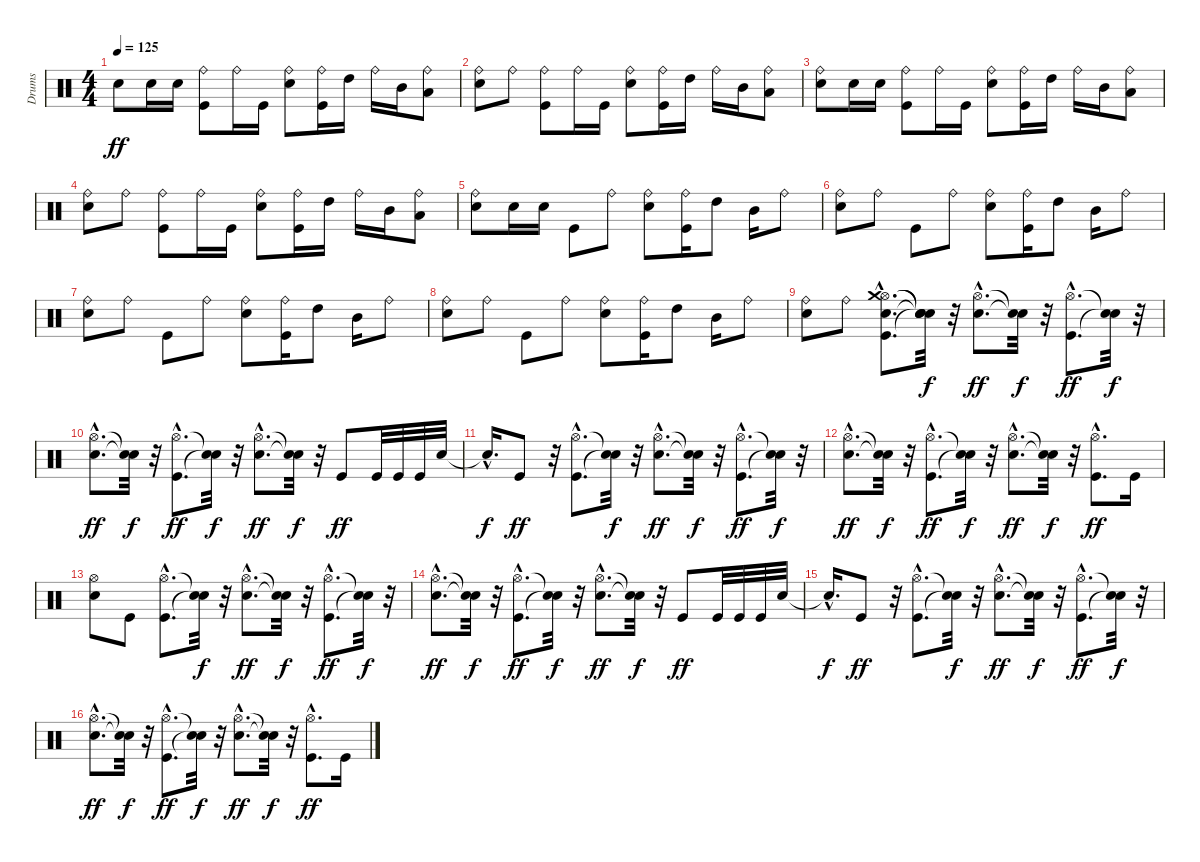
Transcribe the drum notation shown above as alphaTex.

\track ("Drums" "Drums") {instrument percussion}
\staff {score}
\articulation defaults
\ts (4 4)
\tempo 125
\clef neutral
\ks c "Electric Snare (hit)".8{dy ff} "Electric Snare (hit)".16 "Electric Snare (hit)".16
("Kick (hit)" "Ride (bell)").8 "Ride (bell)".16 "Kick (hit)".16 ("Electric Snare (hit)" "Ride (bell)").8 ("Kick (hit)" "Ride (bell)").16 "High Tom (hit)".16 "Ride (bell)".16 "Mid Tom (hit)".16 ("Low Tom (hit)" "Ride (bell)").8 |
("Electric Snare (hit)" "Ride (bell)").8 "Ride (bell)".8 ("Kick (hit)" "Ride (bell)").8 "Ride (bell)".16 "Kick (hit)".16 ("Electric Snare (hit)" "Ride (bell)").8 ("Kick (hit)" "Ride (bell)").16 "High Tom (hit)".16 "Ride (bell)".16 "Mid Tom (hit)".16 ("Low Tom (hit)" "Ride (bell)").8 |
("Electric Snare (hit)" "Ride (bell)").8 "Electric Snare (hit)".16 "Electric Snare (hit)".16 ("Kick (hit)" "Ride (bell)").8 "Ride (bell)".16 "Kick (hit)".16 ("Electric Snare (hit)" "Ride (bell)").8 ("Kick (hit)" "Ride (bell)").16 "High Tom (hit)".16 "Ride (bell)".16 "Mid Tom (hit)".16 ("Low Tom (hit)" "Ride (bell)").8 |
("Electric Snare (hit)" "Ride (bell)").8 "Ride (bell)".8 ("Kick (hit)" "Ride (bell)").8 "Ride (bell)".16 "Kick (hit)".16 ("Electric Snare (hit)" "Ride (bell)").8 ("Kick (hit)" "Ride (bell)").16 "High Tom (hit)".16 "Ride (bell)".16 "Mid Tom (hit)".16 ("Low Tom (hit)" "Ride (bell)").8 |
("Electric Snare (hit)" "Ride (bell)").8 "Electric Snare (hit)".16 "Electric Snare (hit)".16 "Kick (hit)".8 "Ride (bell)".8 ("Electric Snare (hit)" "Ride (bell)").8 ("Kick (hit)" "Ride (bell)").16 "High Tom (hit)".8 "Mid Tom (hit)".16 "Ride (bell)".8 |
("Electric Snare (hit)" "Ride (bell)").8 "Ride (bell)".8 "Kick (hit)".8 "Ride (bell)".8 ("Electric Snare (hit)" "Ride (bell)").8 ("Kick (hit)" "Ride (bell)").16 "High Tom (hit)".8 "Mid Tom (hit)".16 "Ride (bell)".8 |
("Electric Snare (hit)" "Ride (bell)").8 "Ride (bell)".8 "Kick (hit)".8 "Ride (bell)".8 ("Electric Snare (hit)" "Ride (bell)").8 ("Kick (hit)" "Ride (bell)").16 "High Tom (hit)".8 "Mid Tom (hit)".16 "Ride (bell)".8 |
("Electric Snare (hit)" "Ride (bell)").8 "Ride (bell)".8 "Kick (hit)".8 "Ride (bell)".8 ("Electric Snare (hit)" "Ride (bell)").8 ("Kick (hit)" "Ride (bell)").16 "High Tom (hit)".8 "Mid Tom (hit)".16 "Ride (bell)".8 |
("Electric Snare (hit)" "Ride (bell)").8 "Ride (bell)".8 ("Kick (hit)"{hac} "Electric Snare (hit)"{hac} "Hi-Hat (open)"{hac} "Crash medium (hit)"{hac}).8{d} ("Snare (hit)"{t} "Snare (hit)"{t} "Snare (hit)"{t} "Snare (hit)"{t}).32{dy f} r.32 ("Electric Snare (hit)"{hac} "Hi-Hat (open)"{hac}).8{d dy ff} ("Snare (hit)"{t} "Snare (hit)"{t}).32{dy f} r.32 ("Kick (hit)"{hac} "Hi-Hat (open)"{hac}).8{d dy ff} ("Snare (hit)"{t} "Snare (hit)"{t}).32{dy f} r.32 |
("Electric Snare (hit)"{hac} "Hi-Hat (open)"{hac}).8{d dy ff} ("Snare (hit)"{t} "Snare (hit)"{t}).32{dy f} r.32 ("Kick (hit)"{hac} "Hi-Hat (open)"{hac}).8{d dy ff} ("Snare (hit)"{t} "Snare (hit)"{t}).32{dy f} r.32 ("Electric Snare (hit)"{hac} "Hi-Hat (open)"{hac}).8{d dy ff} ("Snare (hit)"{t} "Snare (hit)"{t}).32{dy f} r.32 "Kick (hit)".8{dy ff} "Kick (hit)".32 "Kick (hit)".32 "Kick (hit)".32 "Electric Snare (hit)".32 |
"Snare (hit)"{hac t}.16{d dy f} "Kick (hit)".8{dy ff} r.32 ("Kick (hit)"{hac} "Hi-Hat (open)"{hac}).8{d} ("Snare (hit)"{t} "Snare (hit)"{t}).32{dy f} r.32 ("Electric Snare (hit)"{hac} "Hi-Hat (open)"{hac}).8{d dy ff} ("Snare (hit)"{t} "Snare (hit)"{t}).32{dy f} r.32 ("Kick (hit)"{hac} "Hi-Hat (open)"{hac}).8{d dy ff} ("Snare (hit)"{t} "Snare (hit)"{t}).32{dy f} r.32 |
("Electric Snare (hit)"{hac} "Hi-Hat (open)"{hac}).8{d dy ff} ("Snare (hit)"{t} "Snare (hit)"{t}).32{dy f} r.32 ("Kick (hit)"{hac} "Hi-Hat (open)"{hac}).8{d dy ff} ("Snare (hit)"{t} "Snare (hit)"{t}).32{dy f} r.32 ("Electric Snare (hit)"{hac} "Hi-Hat (open)"{hac}).8{d dy ff} ("Snare (hit)"{t} "Snare (hit)"{t}).32{dy f} r.32 ("Kick (hit)"{hac} "Hi-Hat (open)"{hac}).8{d dy ff} "Kick (hit)".16 |
("Electric Snare (hit)" "Hi-Hat (open)").8 "Kick (hit)".8 ("Kick (hit)"{hac} "Hi-Hat (open)"{hac}).8{d} ("Snare (hit)"{t} "Snare (hit)"{t}).32{dy f} r.32 ("Electric Snare (hit)"{hac} "Hi-Hat (open)"{hac}).8{d dy ff} ("Snare (hit)"{t} "Snare (hit)"{t}).32{dy f} r.32 ("Kick (hit)"{hac} "Hi-Hat (open)"{hac}).8{d dy ff} ("Snare (hit)"{t} "Snare (hit)"{t}).32{dy f} r.32 |
("Electric Snare (hit)"{hac} "Hi-Hat (open)"{hac}).8{d dy ff} ("Snare (hit)"{t} "Snare (hit)"{t}).32{dy f} r.32 ("Kick (hit)"{hac} "Hi-Hat (open)"{hac}).8{d dy ff} ("Snare (hit)"{t} "Snare (hit)"{t}).32{dy f} r.32 ("Electric Snare (hit)"{hac} "Hi-Hat (open)"{hac}).8{d dy ff} ("Snare (hit)"{t} "Snare (hit)"{t}).32{dy f} r.32 "Kick (hit)".8{dy ff} "Kick (hit)".32 "Kick (hit)".32 "Kick (hit)".32 "Electric Snare (hit)".32 |
"Snare (hit)"{hac t}.16{d dy f} "Kick (hit)".8{dy ff} r.32 ("Kick (hit)"{hac} "Hi-Hat (open)"{hac}).8{d} ("Snare (hit)"{t} "Snare (hit)"{t}).32{dy f} r.32 ("Electric Snare (hit)"{hac} "Hi-Hat (open)"{hac}).8{d dy ff} ("Snare (hit)"{t} "Snare (hit)"{t}).32{dy f} r.32 ("Kick (hit)"{hac} "Hi-Hat (open)"{hac}).8{d dy ff} ("Snare (hit)"{t} "Snare (hit)"{t}).32{dy f} r.32 |
("Electric Snare (hit)"{hac} "Hi-Hat (open)"{hac}).8{d dy ff} ("Snare (hit)"{t} "Snare (hit)"{t}).32{dy f} r.32 ("Kick (hit)"{hac} "Hi-Hat (open)"{hac}).8{d dy ff} ("Snare (hit)"{t} "Snare (hit)"{t}).32{dy f} r.32 ("Electric Snare (hit)"{hac} "Hi-Hat (open)"{hac}).8{d dy ff} ("Snare (hit)"{t} "Snare (hit)"{t}).32{dy f} r.32 ("Kick (hit)"{hac} "Hi-Hat (open)"{hac}).8{d dy ff} "Kick (hit)".16
